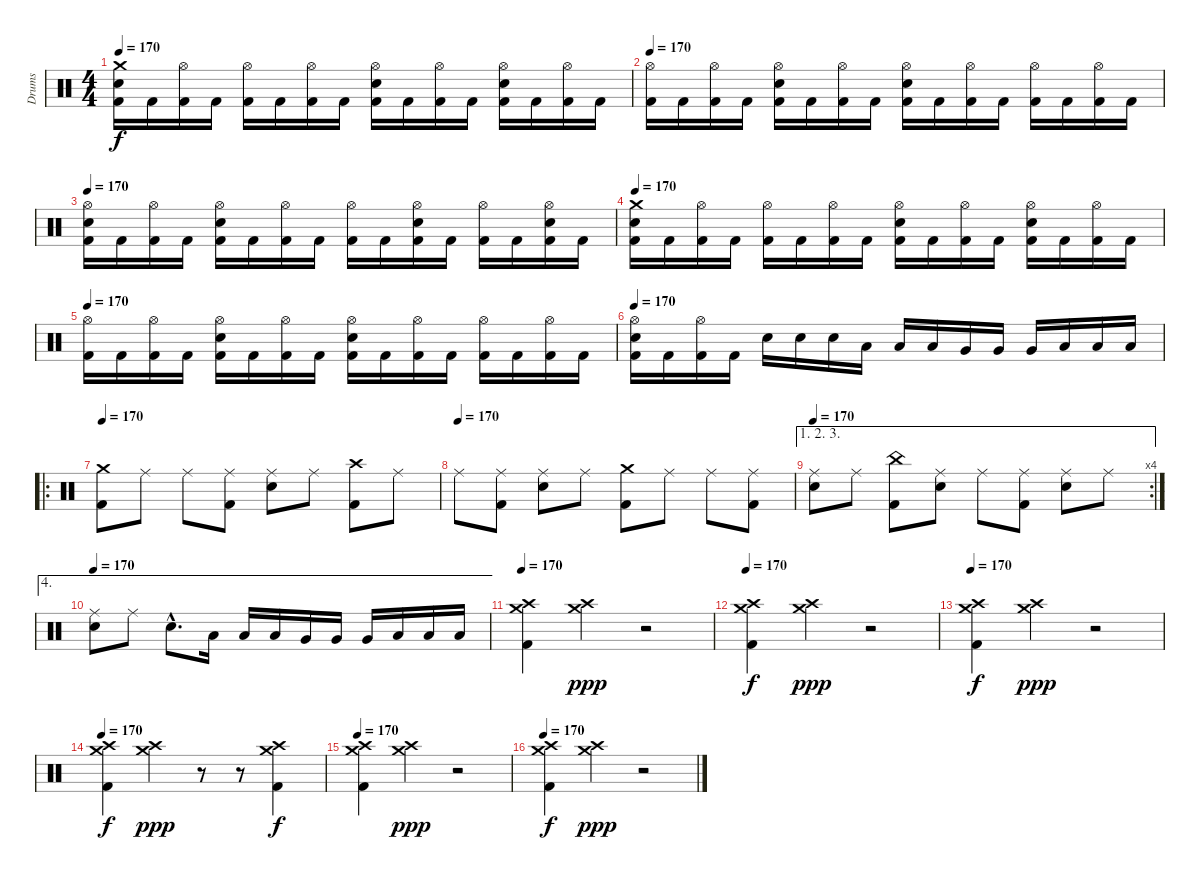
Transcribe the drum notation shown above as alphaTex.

\track ("Drums" "Drums") {instrument percussion}
\staff {score}
\articulation defaults
\ts (4 4)
\tempo 170
\clef neutral
\ks c
("Crash medium (hit)" "Snare (hit) 2" "Kick (hit) 2").16{dy f} "Kick (hit) 2".16 ("Hi-Hat (open)" "Kick (hit) 2").16 "Kick (hit) 2".16 ("Hi-Hat (open)" "Kick (hit) 2").16 "Kick (hit) 2".16 ("Hi-Hat (open)" "Kick (hit) 2").16 "Kick (hit) 2".16 ("Hi-Hat (open)" "Snare (hit) 2" "Kick (hit) 2").16 "Kick (hit) 2".16 ("Hi-Hat (open)" "Kick (hit) 2").16 "Kick (hit) 2".16 ("Hi-Hat (open)" "Snare (hit) 2" "Kick (hit) 2").16 "Kick (hit) 2".16 ("Hi-Hat (open)" "Kick (hit) 2").16 "Kick (hit) 2".16 |
\tempo 170
("Hi-Hat (open)" "Kick (hit) 2").16 "Kick (hit) 2".16 ("Hi-Hat (open)" "Kick (hit) 2").16 "Kick (hit) 2".16 ("Hi-Hat (open)" "Snare (hit) 2" "Kick (hit) 2").16 "Kick (hit) 2".16 ("Hi-Hat (open)" "Kick (hit) 2").16 "Kick (hit) 2".16 ("Hi-Hat (open)" "Snare (hit) 2" "Kick (hit) 2").16 "Kick (hit) 2".16 ("Hi-Hat (open)" "Kick (hit) 2").16 "Kick (hit) 2".16 ("Hi-Hat (open)" "Kick (hit) 2").16 "Kick (hit) 2".16 ("Hi-Hat (open)" "Kick (hit) 2").16 "Kick (hit) 2".16 |
\tempo 170
("Hi-Hat (open)" "Snare (hit) 2" "Kick (hit) 2").16 "Kick (hit) 2".16 ("Hi-Hat (open)" "Kick (hit) 2").16 "Kick (hit) 2".16 ("Hi-Hat (open)" "Snare (hit) 2" "Kick (hit) 2").16 "Kick (hit) 2".16 ("Hi-Hat (open)" "Kick (hit) 2").16 "Kick (hit) 2".16 ("Hi-Hat (open)" "Kick (hit) 2").16 "Kick (hit) 2".16 ("Hi-Hat (open)" "Snare (hit) 2" "Kick (hit) 2").16 "Kick (hit) 2".16 ("Hi-Hat (open)" "Kick (hit) 2").16 "Kick (hit) 2".16 ("Hi-Hat (open)" "Snare (hit) 2" "Kick (hit) 2").16 "Kick (hit) 2".16 |
\tempo 170
("Crash medium (hit)" "Snare (hit) 2" "Kick (hit) 2").16 "Kick (hit) 2".16 ("Hi-Hat (open)" "Kick (hit) 2").16 "Kick (hit) 2".16 ("Hi-Hat (open)" "Kick (hit) 2").16 "Kick (hit) 2".16 ("Hi-Hat (open)" "Kick (hit) 2").16 "Kick (hit) 2".16 ("Hi-Hat (open)" "Snare (hit) 2" "Kick (hit) 2").16 "Kick (hit) 2".16 ("Hi-Hat (open)" "Kick (hit) 2").16 "Kick (hit) 2".16 ("Hi-Hat (open)" "Snare (hit) 2" "Kick (hit) 2").16 "Kick (hit) 2".16 ("Hi-Hat (open)" "Kick (hit) 2").16 "Kick (hit) 2".16 |
\tempo 170
("Hi-Hat (open)" "Kick (hit) 2").16 "Kick (hit) 2".16 ("Hi-Hat (open)" "Kick (hit) 2").16 "Kick (hit) 2".16 ("Hi-Hat (open)" "Snare (hit) 2" "Kick (hit) 2").16 "Kick (hit) 2".16 ("Hi-Hat (open)" "Kick (hit) 2").16 "Kick (hit) 2".16 ("Hi-Hat (open)" "Snare (hit) 2" "Kick (hit) 2").16 "Kick (hit) 2".16 ("Hi-Hat (open)" "Kick (hit) 2").16 "Kick (hit) 2".16 ("Hi-Hat (open)" "Kick (hit) 2").16 "Kick (hit) 2".16 ("Hi-Hat (open)" "Kick (hit) 2").16 "Kick (hit) 2".16 |
\tempo 170
("Hi-Hat (open)" "Snare (hit) 2" "Kick (hit) 2").16 "Kick (hit) 2".16 ("Hi-Hat (open)" "Kick (hit) 2").16 "Kick (hit) 2".16 "Snare (hit) 2".16 "Snare (hit) 2".16 "Snare (hit) 2".16 "Low Tom (hit)".16 "Low Tom (hit)".16 "Low Tom (hit)".16 "Very Low Tom (hit)".16 "Very Low Tom (hit)".16 "Very Low Tom (hit)".16 "Low Floor Tom (hit)".16 "Low Floor Tom (hit)".16 "Low Floor Tom (hit)".16 |
\ro
\tempo 170
("Crash medium (hit)" "Kick (hit) 2").8 "Ride (middle)".8 "Ride (middle)".8 ("Ride (middle)" "Kick (hit) 2").8 ("Ride (middle)" "Snare (hit) 2").8 "Ride (middle)".8 ("Crash high (hit)" "Kick (hit) 2").8 "Ride (middle)".8 |
\tempo (170)
"Ride (middle)".8 ("Ride (middle)" "Kick (hit) 2").8 ("Ride (middle)" "Snare (hit) 2").8 "Ride (middle)".8 ("Crash medium (hit)" "Kick (hit) 2").8 "Ride (middle)".8 "Ride (middle)".8 ("Ride (middle)" "Kick (hit) 2").8 |
\ae (1 2 3)
\rc 4
\tempo 170
("Ride (middle)" "Snare (hit) 2").8 "Ride (middle)".8 ("China (hit)" "Kick (hit) 2").8 ("Ride (middle)" "Snare (hit) 2").8 "Ride (middle)".8 ("Ride (middle)" "Kick (hit) 2").8 ("Ride (middle)" "Snare (hit) 2").8 "Ride (middle)".8 |
\ae 4
\tempo 170
("Ride (middle)" "Snare (hit) 2").8 "Ride (middle)".8 "Snare (hit) 2"{hac}.8{d} "Low Tom (hit)".16 "Low Tom (hit)".16 "Low Tom (hit)".16 "Very Low Tom (hit)".16 "Very Low Tom (hit)".16 "Very Low Tom (hit)".16 "Low Floor Tom (hit)".16 "Low Floor Tom (hit)".16 "Low Floor Tom (hit)".16 |
\tempo 170
("Crash medium (hit)" "Crash high (hit)" "Kick (hit) 2").4 ("Crash medium (hit)" "Crash high (hit)").4{dy ppp} r.2 |
\tempo 170
("Crash medium (hit)" "Crash high (hit)" "Kick (hit) 2").4{dy f} ("Crash medium (hit)" "Crash high (hit)").4{dy ppp} r.2 |
\tempo 170
("Crash medium (hit)" "Crash high (hit)" "Kick (hit) 2").4{dy f} ("Crash medium (hit)" "Crash high (hit)").4{dy ppp} r.2 |
\tempo 170
("Crash medium (hit)" "Crash high (hit)" "Kick (hit) 2").4{dy f} ("Crash medium (hit)" "Crash high (hit)").4{dy ppp} r.8 r.8 ("Crash medium (hit)" "Crash high (hit)" "Kick (hit) 2").4{dy f} |
\tempo 170
("Crash medium (hit)" "Crash high (hit)" "Kick (hit) 2").4 ("Crash medium (hit)" "Crash high (hit)").4{dy ppp} r.2 |
\tempo 170
("Crash medium (hit)" "Crash high (hit)" "Kick (hit) 2").4{dy f} ("Crash medium (hit)" "Crash high (hit)").4{dy ppp} r.2
